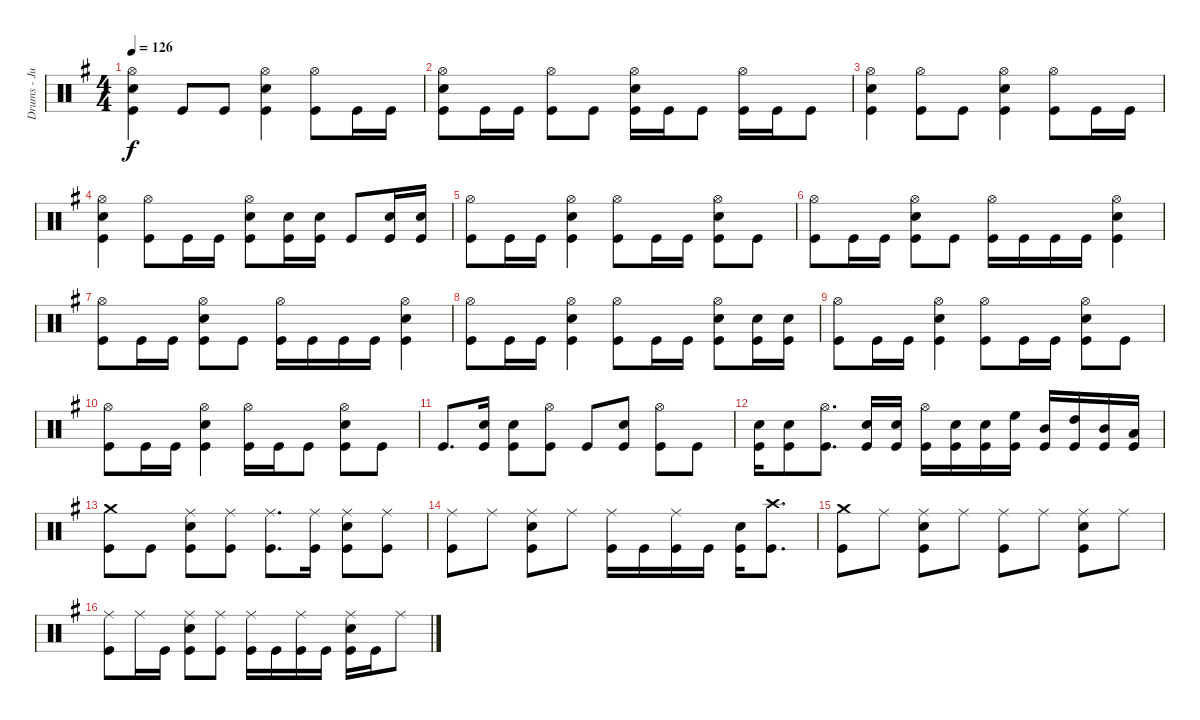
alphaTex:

\track ("Drums - Jukka" "Drums - Ju") {instrument percussion}
\staff {score}
\articulation defaults
\ts (4 4)
\tempo 126
\clef neutral
\ks eminor
("Hi-Hat (open)" "Kick (hit)" "Snare (hit) 2").4{dy f} "Kick (hit)".8 "Kick (hit)".8 ("Kick (hit)" "Snare (hit) 2" "Hi-Hat (open)").4 ("Kick (hit)" "Hi-Hat (open)").8 "Kick (hit)".16 "Kick (hit)".16 |
("Snare (hit) 2" "Hi-Hat (open)" "Kick (hit)").8 "Kick (hit)".16 "Kick (hit)".16 ("Kick (hit)" "Hi-Hat (open)").8 "Kick (hit)".8 ("Kick (hit)" "Hi-Hat (open)" "Snare (hit) 2").16 "Kick (hit)".16 "Kick (hit)".8 ("Kick (hit)" "Hi-Hat (open)").16 "Kick (hit)".16 "Kick (hit)".8 |
("Kick (hit)" "Hi-Hat (open)" "Snare (hit) 2").4 ("Kick (hit)" "Hi-Hat (open)").8 "Kick (hit)".8 ("Kick (hit)" "Hi-Hat (open)" "Snare (hit) 2").4 ("Kick (hit)" "Hi-Hat (open)").8 "Kick (hit)".16 "Kick (hit)".16 |
("Kick (hit)" "Hi-Hat (open)" "Snare (hit) 2").4 ("Kick (hit)" "Hi-Hat (open)").8 "Kick (hit)".16 "Kick (hit)".16 ("Snare (hit) 2" "Hi-Hat (open)" "Kick (hit)").8 ("Kick (hit)" "Snare (hit) 2").16 ("Kick (hit)" "Snare (hit) 2").16 "Kick (hit)".8 ("Kick (hit)" "Snare (hit) 2").16 ("Kick (hit)" "Snare (hit) 2").16 |
("Kick (hit)" "Hi-Hat (open)").8 "Kick (hit)".16 "Kick (hit)".16 ("Kick (hit)" "Snare (hit) 2" "Hi-Hat (open)").4 ("Kick (hit)" "Hi-Hat (open)").8 "Kick (hit)".16 "Kick (hit)".16 ("Kick (hit)" "Snare (hit) 2" "Hi-Hat (open)").8 "Kick (hit)".8 |
("Kick (hit)" "Hi-Hat (open)").8 "Kick (hit)".16 "Kick (hit)".16 ("Kick (hit)" "Snare (hit) 2" "Hi-Hat (open)").8 "Kick (hit)".8 ("Kick (hit)" "Hi-Hat (open)").16 "Kick (hit)".16 "Kick (hit)".16 "Kick (hit)".16 ("Hi-Hat (open)" "Snare (hit) 2" "Kick (hit)").4 |
("Kick (hit)" "Hi-Hat (open)").8 "Kick (hit)".16 "Kick (hit)".16 ("Kick (hit)" "Snare (hit) 2" "Hi-Hat (open)").8 "Kick (hit)".8 ("Kick (hit)" "Hi-Hat (open)").16 "Kick (hit)".16 "Kick (hit)".16 "Kick (hit)".16 ("Hi-Hat (open)" "Snare (hit) 2" "Kick (hit)").4 |
("Kick (hit)" "Hi-Hat (open)").8 "Kick (hit)".16 "Kick (hit)".16 ("Kick (hit)" "Snare (hit) 2" "Hi-Hat (open)").4 ("Kick (hit)" "Hi-Hat (open)").8 "Kick (hit)".16 "Kick (hit)".16 ("Kick (hit)" "Hi-Hat (open)" "Snare (hit) 2").8 ("Snare (hit) 2" "Kick (hit)").16 ("Kick (hit)" "Snare (hit) 2").16 |
("Kick (hit)" "Hi-Hat (open)").8 "Kick (hit)".16 "Kick (hit)".16 ("Kick (hit)" "Snare (hit) 2" "Hi-Hat (open)").4 ("Kick (hit)" "Hi-Hat (open)").8 "Kick (hit)".16 "Kick (hit)".16 ("Kick (hit)" "Snare (hit) 2" "Hi-Hat (open)").8 "Kick (hit)".8 |
("Kick (hit)" "Hi-Hat (open)").8 "Kick (hit)".16 "Kick (hit)".16 ("Kick (hit)" "Snare (hit) 2" "Hi-Hat (open)").4 ("Kick (hit)" "Hi-Hat (open)").16 "Kick (hit)".16 "Kick (hit)".8 ("Snare (hit) 2" "Kick (hit)" "Hi-Hat (open)").8 "Kick (hit)".8 |
"Kick (hit)".8{d} ("Snare (hit) 2" "Kick (hit)").16 ("Kick (hit)" "Snare (hit) 2").8 ("Kick (hit)" "Hi-Hat (open)").8 "Kick (hit)".8 ("Kick (hit)" "Snare (hit) 2").8 ("Kick (hit)" "Hi-Hat (open)").8 "Kick (hit)".8 |
("Kick (hit)" "Snare (hit) 2").16 ("Kick (hit)" "Snare (hit) 2").8 ("Kick (hit)" "Hi-Hat (open)").8{d} ("Kick (hit)" "Snare (hit) 2").16 ("Kick (hit)" "Snare (hit) 2").16 ("Kick (hit)" "Hi-Hat (open)").16 ("Kick (hit)" "Snare (hit) 2").16 ("Kick (hit)" "Snare (hit) 2").16 ("Kick (hit)" "High Floor Tom (hit)").16 ("Kick (hit)" "Mid Tom (hit)").16 ("Kick (hit)" "High Tom (hit)").16 ("Mid Tom (hit)" "Kick (hit)").16 ("Kick (hit)" "Low Tom (hit)").16 |
("Kick (hit)" "Crash medium (hit)").8 "Kick (hit)".8 ("Kick (hit)" "Snare (hit) 2" "Ride (middle)").8 ("Kick (hit)" "Ride (middle)").8 ("Kick (hit)" "Ride (middle)").8{d} ("Kick (hit)" "Ride (middle)").16 ("Kick (hit)" "Snare (hit) 2" "Ride (middle)").8 ("Kick (hit)" "Ride (middle)").8 |
("Kick (hit)" "Ride (middle)").8 "Ride (middle)".8 ("Kick (hit)" "Snare (hit) 2" "Ride (middle)").8 "Ride (middle)".8 ("Ride (middle)" "Kick (hit)").16 "Kick (hit)".16 ("Kick (hit)" "Ride (middle)").16 "Kick (hit)".16 ("Kick (hit)" "Snare (hit) 2").16 ("Kick (hit)" "Crash high (hit)").8{d} |
("Kick (hit)" "Crash medium (hit)").8 "Ride (middle)".8 ("Kick (hit)" "Snare (hit) 2" "Ride (middle)").8 "Ride (middle)".8 ("Kick (hit)" "Ride (middle)").8 "Ride (middle)".8 ("Kick (hit)" "Snare (hit) 2" "Ride (middle)").8 "Ride (middle)".8 |
("Kick (hit)" "Ride (middle)").8 "Ride (middle)".16 "Kick (hit)".16 ("Kick (hit)" "Snare (hit) 2" "Ride (middle)").8 ("Kick (hit)" "Ride (middle)").8 ("Kick (hit)" "Ride (middle)").16 "Kick (hit)".16 ("Kick (hit)" "Ride (middle)").16 "Kick (hit)".16 ("Kick (hit)" "Snare (hit) 2" "Ride (middle)").16 "Kick (hit)".16 "Ride (middle)".8
